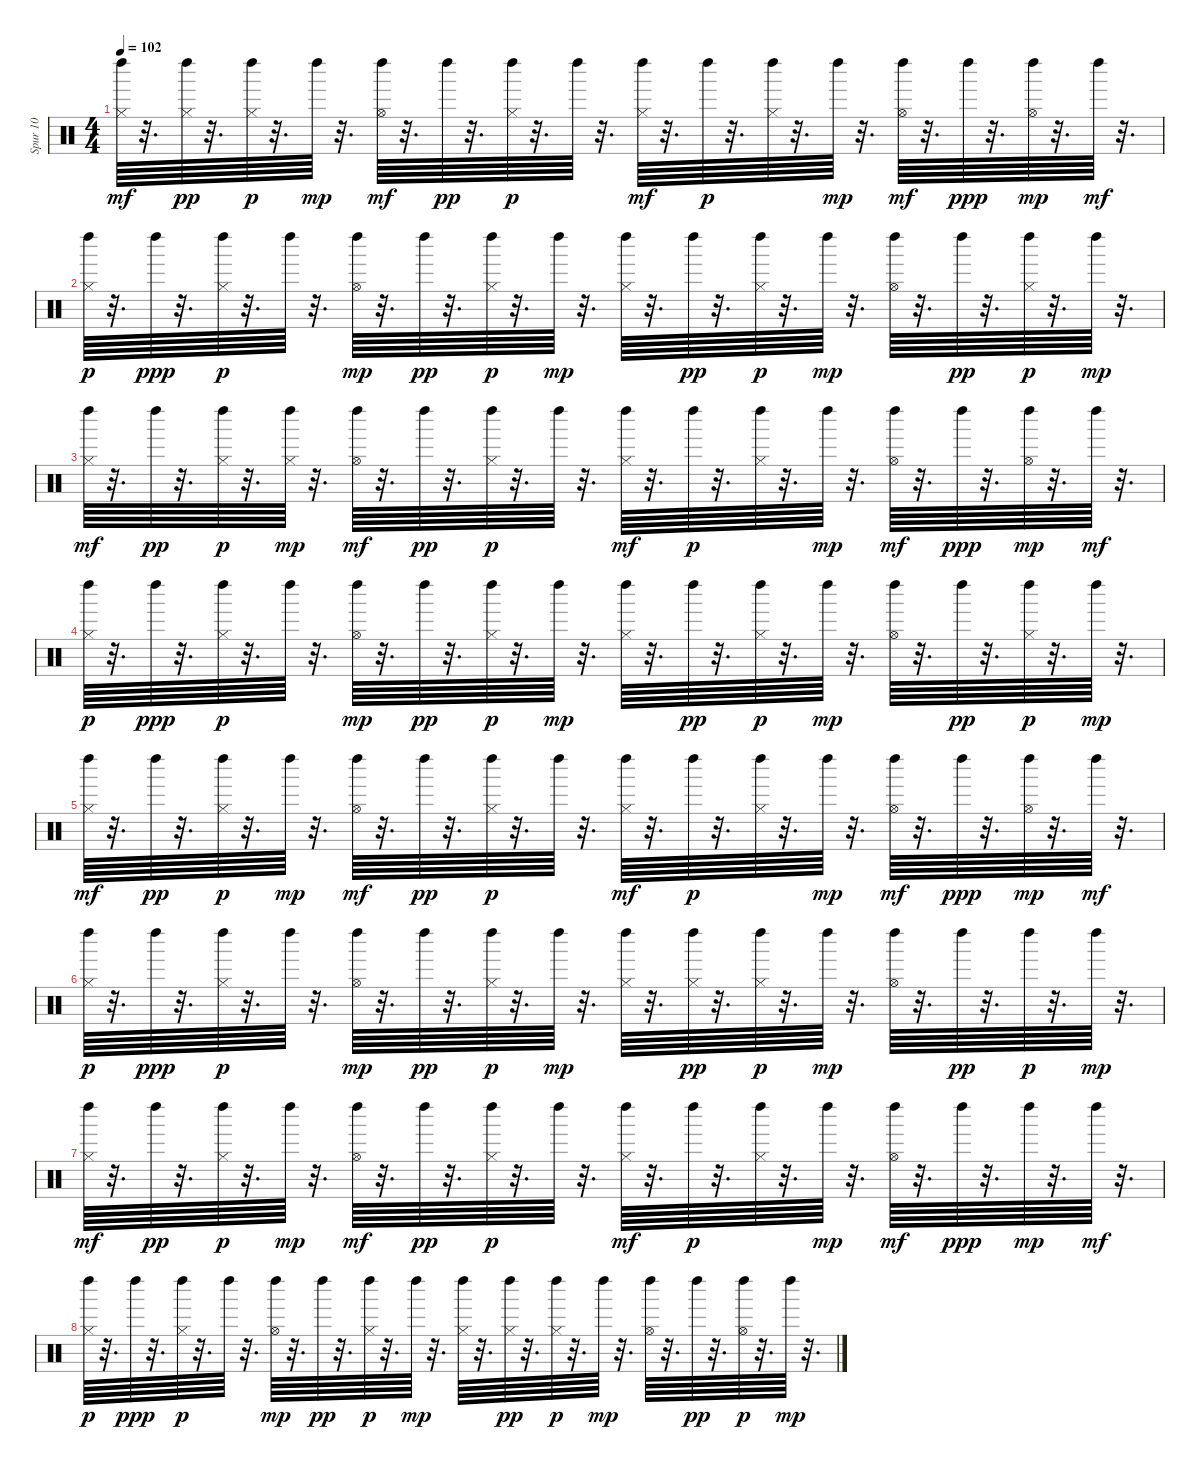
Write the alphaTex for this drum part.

\track ("Spur 10" "Spur 10") {instrument percussion}
\staff {score}
\articulation defaults
\ts (4 4)
\tempo 102
\clef neutral
\ks c
("Hi-Hat (closed)" "Left Maraca (hit)").64{dy mf} r.32{d} ("Hi-Hat (closed)" "Left Maraca (hit)").64{dy pp} r.32{d} ("Hi-Hat (closed)" "Left Maraca (hit)").64{dy p} r.32{d} "Left Maraca (hit)".64{dy mp} r.32{d} ("Hi-Hat (open)" "Left Maraca (hit)").64{dy mf} r.32{d} "Left Maraca (hit)".64{dy pp} r.32{d} ("Hi-Hat (closed)" "Left Maraca (hit)").64{dy p} r.32{d} "Left Maraca (hit)".64 r.32{d} ("Hi-Hat (closed)" "Left Maraca (hit)").64{dy mf} r.32{d} "Left Maraca (hit)".64{dy p} r.32{d} ("Hi-Hat (closed)" "Left Maraca (hit)").64 r.32{d} "Left Maraca (hit)".64{dy mp} r.32{d} ("Hi-Hat (open)" "Left Maraca (hit)").64{dy mf} r.32{d} "Left Maraca (hit)".64{dy ppp} r.32{d} ("Hi-Hat (open)" "Left Maraca (hit)").64{dy mp} r.32{d} "Left Maraca (hit)".64{dy mf} r.32{d} |
("Hi-Hat (closed)" "Left Maraca (hit)").64{dy p} r.32{d} "Left Maraca (hit)".64{dy ppp} r.32{d} ("Hi-Hat (closed)" "Left Maraca (hit)").64{dy p} r.32{d} "Left Maraca (hit)".64 r.32{d} ("Hi-Hat (open)" "Left Maraca (hit)").64{dy mp} r.32{d} "Left Maraca (hit)".64{dy pp} r.32{d} ("Hi-Hat (closed)" "Left Maraca (hit)").64{dy p} r.32{d} "Left Maraca (hit)".64{dy mp} r.32{d} ("Hi-Hat (closed)" "Left Maraca (hit)").64 r.32{d} "Left Maraca (hit)".64{dy pp} r.32{d} ("Hi-Hat (closed)" "Left Maraca (hit)").64{dy p} r.32{d} "Left Maraca (hit)".64{dy mp} r.32{d} ("Hi-Hat (open)" "Left Maraca (hit)").64 r.32{d} "Left Maraca (hit)".64{dy pp} r.32{d} ("Hi-Hat (closed)" "Left Maraca (hit)").64{dy p} r.32{d} "Left Maraca (hit)".64{dy mp} r.32{d} |
("Hi-Hat (closed)" "Left Maraca (hit)").64{dy mf} r.32{d} "Left Maraca (hit)".64{dy pp} r.32{d} ("Hi-Hat (closed)" "Left Maraca (hit)").64{dy p} r.32{d} ("Hi-Hat (closed)" "Left Maraca (hit)").64{dy mp} r.32{d} ("Hi-Hat (open)" "Left Maraca (hit)").64{dy mf} r.32{d} "Left Maraca (hit)".64{dy pp} r.32{d} ("Hi-Hat (closed)" "Left Maraca (hit)").64{dy p} r.32{d} "Left Maraca (hit)".64 r.32{d} ("Hi-Hat (closed)" "Left Maraca (hit)").64{dy mf} r.32{d} "Left Maraca (hit)".64{dy p} r.32{d} ("Hi-Hat (closed)" "Left Maraca (hit)").64 r.32{d} "Left Maraca (hit)".64{dy mp} r.32{d} ("Hi-Hat (open)" "Left Maraca (hit)").64{dy mf} r.32{d} "Left Maraca (hit)".64{dy ppp} r.32{d} ("Hi-Hat (open)" "Left Maraca (hit)").64{dy mp} r.32{d} "Left Maraca (hit)".64{dy mf} r.32{d} |
("Hi-Hat (closed)" "Left Maraca (hit)").64{dy p} r.32{d} "Left Maraca (hit)".64{dy ppp} r.32{d} ("Hi-Hat (closed)" "Left Maraca (hit)").64{dy p} r.32{d} "Left Maraca (hit)".64 r.32{d} ("Hi-Hat (open)" "Left Maraca (hit)").64{dy mp} r.32{d} "Left Maraca (hit)".64{dy pp} r.32{d} ("Hi-Hat (closed)" "Left Maraca (hit)").64{dy p} r.32{d} "Left Maraca (hit)".64{dy mp} r.32{d} ("Hi-Hat (closed)" "Left Maraca (hit)").64 r.32{d} "Left Maraca (hit)".64{dy pp} r.32{d} ("Hi-Hat (closed)" "Left Maraca (hit)").64{dy p} r.32{d} "Left Maraca (hit)".64{dy mp} r.32{d} ("Hi-Hat (open)" "Left Maraca (hit)").64 r.32{d} "Left Maraca (hit)".64{dy pp} r.32{d} ("Hi-Hat (closed)" "Left Maraca (hit)").64{dy p} r.32{d} "Left Maraca (hit)".64{dy mp} r.32{d} |
("Hi-Hat (closed)" "Left Maraca (hit)").64{dy mf} r.32{d} "Left Maraca (hit)".64{dy pp} r.32{d} ("Hi-Hat (closed)" "Left Maraca (hit)").64{dy p} r.32{d} "Left Maraca (hit)".64{dy mp} r.32{d} ("Hi-Hat (open)" "Left Maraca (hit)").64{dy mf} r.32{d} "Left Maraca (hit)".64{dy pp} r.32{d} ("Hi-Hat (closed)" "Left Maraca (hit)").64{dy p} r.32{d} "Left Maraca (hit)".64 r.32{d} ("Hi-Hat (closed)" "Left Maraca (hit)").64{dy mf} r.32{d} "Left Maraca (hit)".64{dy p} r.32{d} ("Hi-Hat (closed)" "Left Maraca (hit)").64 r.32{d} "Left Maraca (hit)".64{dy mp} r.32{d} ("Hi-Hat (open)" "Left Maraca (hit)").64{dy mf} r.32{d} "Left Maraca (hit)".64{dy ppp} r.32{d} ("Hi-Hat (open)" "Left Maraca (hit)").64{dy mp} r.32{d} "Left Maraca (hit)".64{dy mf} r.32{d} |
("Hi-Hat (closed)" "Left Maraca (hit)").64{dy p} r.32{d} "Left Maraca (hit)".64{dy ppp} r.32{d} ("Hi-Hat (closed)" "Left Maraca (hit)").64{dy p} r.32{d} "Left Maraca (hit)".64 r.32{d} ("Hi-Hat (open)" "Left Maraca (hit)").64{dy mp} r.32{d} "Left Maraca (hit)".64{dy pp} r.32{d} ("Hi-Hat (closed)" "Left Maraca (hit)").64{dy p} r.32{d} "Left Maraca (hit)".64{dy mp} r.32{d} ("Hi-Hat (closed)" "Left Maraca (hit)").64 r.32{d} ("Hi-Hat (closed)" "Left Maraca (hit)").64{dy pp} r.32{d} ("Hi-Hat (closed)" "Left Maraca (hit)").64{dy p} r.32{d} "Left Maraca (hit)".64{dy mp} r.32{d} ("Hi-Hat (open)" "Left Maraca (hit)").64 r.32{d} "Left Maraca (hit)".64{dy pp} r.32{d} "Left Maraca (hit)".64{dy p} r.32{d} "Left Maraca (hit)".64{dy mp} r.32{d} |
("Hi-Hat (closed)" "Left Maraca (hit)").64{dy mf} r.32{d} "Left Maraca (hit)".64{dy pp} r.32{d} ("Hi-Hat (closed)" "Left Maraca (hit)").64{dy p} r.32{d} "Left Maraca (hit)".64{dy mp} r.32{d} ("Hi-Hat (open)" "Left Maraca (hit)").64{dy mf} r.32{d} "Left Maraca (hit)".64{dy pp} r.32{d} ("Hi-Hat (closed)" "Left Maraca (hit)").64{dy p} r.32{d} "Left Maraca (hit)".64 r.32{d} ("Hi-Hat (closed)" "Left Maraca (hit)").64{dy mf} r.32{d} "Left Maraca (hit)".64{dy p} r.32{d} ("Hi-Hat (closed)" "Left Maraca (hit)").64 r.32{d} "Left Maraca (hit)".64{dy mp} r.32{d} ("Hi-Hat (open)" "Left Maraca (hit)").64{dy mf} r.32{d} "Left Maraca (hit)".64{dy ppp} r.32{d} "Left Maraca (hit)".64{dy mp} r.32{d} "Left Maraca (hit)".64{dy mf} r.32{d} |
("Hi-Hat (closed)" "Left Maraca (hit)").64{dy p} r.32{d} "Left Maraca (hit)".64{dy ppp} r.32{d} ("Hi-Hat (closed)" "Left Maraca (hit)").64{dy p} r.32{d} "Left Maraca (hit)".64 r.32{d} ("Hi-Hat (open)" "Left Maraca (hit)").64{dy mp} r.32{d} "Left Maraca (hit)".64{dy pp} r.32{d} ("Hi-Hat (closed)" "Left Maraca (hit)").64{dy p} r.32{d} "Left Maraca (hit)".64{dy mp} r.32{d} ("Hi-Hat (closed)" "Left Maraca (hit)").64 r.32{d} ("Hi-Hat (closed)" "Left Maraca (hit)").64{dy pp} r.32{d} ("Hi-Hat (closed)" "Left Maraca (hit)").64{dy p} r.32{d} "Left Maraca (hit)".64{dy mp} r.32{d} ("Hi-Hat (open)" "Left Maraca (hit)").64 r.32{d} "Left Maraca (hit)".64{dy pp} r.32{d} ("Hi-Hat (open)" "Left Maraca (hit)").64{dy p} r.32{d} "Left Maraca (hit)".64{dy mp} r.32{d}
